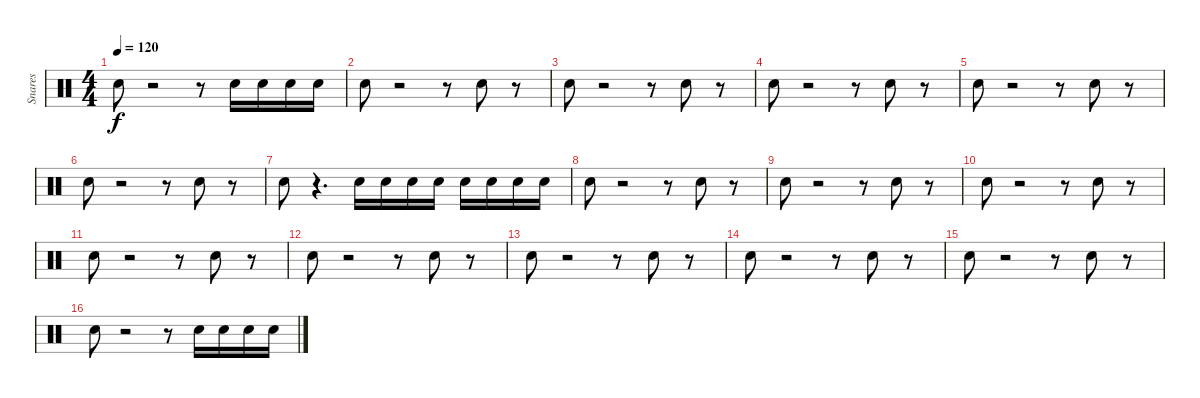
\track ("Snares              " "Snares    ") {instrument percussion}
\staff {score}
\articulation defaults
\ts (4 4)
\tempo 120
\clef neutral
\ks c "Snare (hit) 2".8{dy f}
r.2 r.8 "Snare (hit) 2".16 "Snare (hit) 2".16 "Snare (hit) 2".16 "Snare (hit) 2".16 |
"Snare (hit) 2".8 r.2 r.8 "Snare (hit) 2".8 r.8 |
"Snare (hit) 2".8 r.2 r.8 "Snare (hit) 2".8 r.8 |
"Snare (hit) 2".8 r.2 r.8 "Snare (hit) 2".8 r.8 |
"Snare (hit) 2".8 r.2 r.8 "Snare (hit) 2".8 r.8 |
"Snare (hit) 2".8 r.2 r.8 "Snare (hit) 2".8 r.8 |
"Snare (hit) 2".8 r.4{d} "Snare (hit) 2".16 "Snare (hit) 2".16 "Snare (hit) 2".16 "Snare (hit) 2".16 "Snare (hit) 2".16 "Snare (hit) 2".16 "Snare (hit) 2".16 "Snare (hit) 2".16 |
"Snare (hit) 2".8 r.2 r.8 "Snare (hit) 2".8 r.8 |
"Snare (hit) 2".8 r.2 r.8 "Snare (hit) 2".8 r.8 |
"Snare (hit) 2".8 r.2 r.8 "Snare (hit) 2".8 r.8 |
"Snare (hit) 2".8 r.2 r.8 "Snare (hit) 2".8 r.8 |
"Snare (hit) 2".8 r.2 r.8 "Snare (hit) 2".8 r.8 |
"Snare (hit) 2".8 r.2 r.8 "Snare (hit) 2".8 r.8 |
"Snare (hit) 2".8 r.2 r.8 "Snare (hit) 2".8 r.8 |
"Snare (hit) 2".8 r.2 r.8 "Snare (hit) 2".8 r.8 |
"Snare (hit) 2".8 r.2 r.8 "Snare (hit) 2".16 "Snare (hit) 2".16 "Snare (hit) 2".16 "Snare (hit) 2".16
